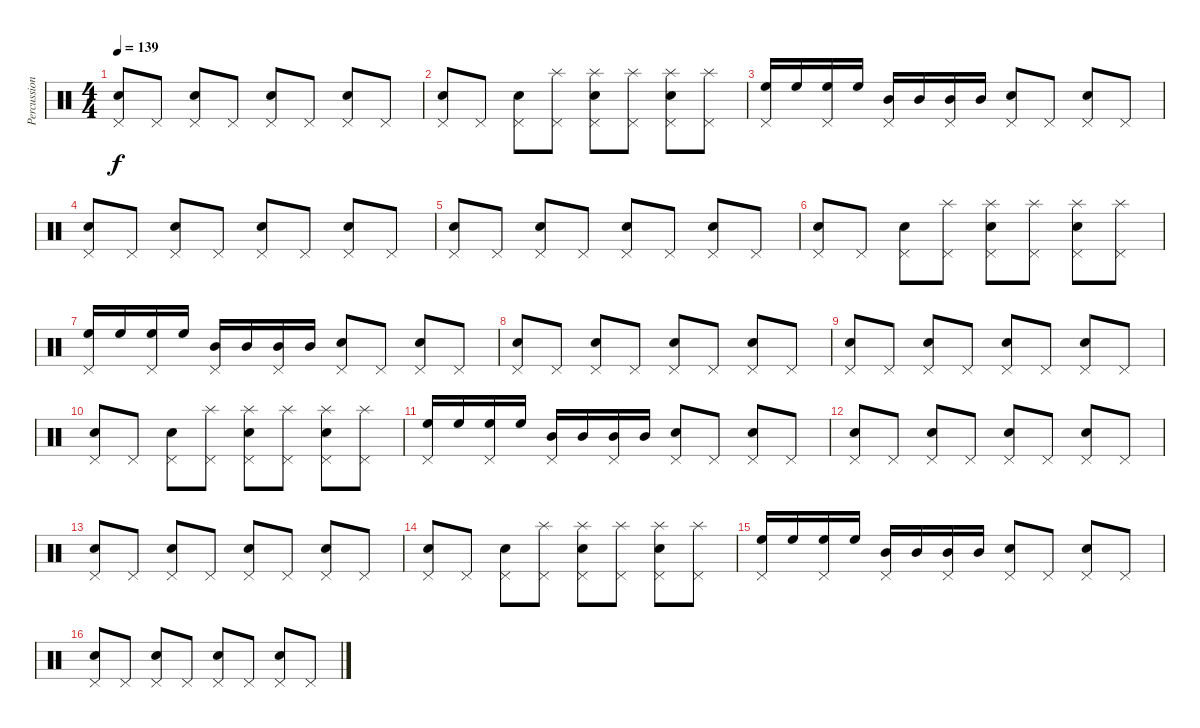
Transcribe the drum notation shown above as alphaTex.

\track ("Percussion" "Percussion") {instrument percussion}
\staff {score}
\articulation defaults
\ts (4 4)
\tempo 139
\clef neutral
\ks c
("Electric Snare (hit)" "Pedal Hi-Hat (hit)").8{dy f} "Pedal Hi-Hat (hit)".8 ("Electric Snare (hit)" "Pedal Hi-Hat (hit)").8 "Pedal Hi-Hat (hit)".8 ("Electric Snare (hit)" "Pedal Hi-Hat (hit)").8 "Pedal Hi-Hat (hit)".8 ("Electric Snare (hit)" "Pedal Hi-Hat (hit)").8 "Pedal Hi-Hat (hit)".8 |
("Electric Snare (hit)" "Pedal Hi-Hat (hit)").8 "Pedal Hi-Hat (hit)".8 ("Electric Snare (hit)" "Pedal Hi-Hat (hit)").8 ("Splash (hit)" "Pedal Hi-Hat (hit)").8 ("Splash (hit)" "Electric Snare (hit)" "Pedal Hi-Hat (hit)").8 ("Splash (hit)" "Pedal Hi-Hat (hit)").8 ("Splash (hit)" "Electric Snare (hit)" "Pedal Hi-Hat (hit)").8 ("Splash (hit)" "Pedal Hi-Hat (hit)").8 |
("High Floor Tom (hit)" "Pedal Hi-Hat (hit)").16 "High Floor Tom (hit)".16 ("High Floor Tom (hit)" "Pedal Hi-Hat (hit)").16 "High Floor Tom (hit)".16 ("Mid Tom (hit)" "Pedal Hi-Hat (hit)").16 "Mid Tom (hit)".16 ("Mid Tom (hit)" "Pedal Hi-Hat (hit)").16 "Mid Tom (hit)".16 ("Electric Snare (hit)" "Pedal Hi-Hat (hit)").8 "Pedal Hi-Hat (hit)".8 ("Electric Snare (hit)" "Pedal Hi-Hat (hit)").8 "Pedal Hi-Hat (hit)".8 |
("Electric Snare (hit)" "Pedal Hi-Hat (hit)").8 "Pedal Hi-Hat (hit)".8 ("Electric Snare (hit)" "Pedal Hi-Hat (hit)").8 "Pedal Hi-Hat (hit)".8 ("Electric Snare (hit)" "Pedal Hi-Hat (hit)").8 "Pedal Hi-Hat (hit)".8 ("Electric Snare (hit)" "Pedal Hi-Hat (hit)").8 "Pedal Hi-Hat (hit)".8 |
("Electric Snare (hit)" "Pedal Hi-Hat (hit)").8 "Pedal Hi-Hat (hit)".8 ("Electric Snare (hit)" "Pedal Hi-Hat (hit)").8 "Pedal Hi-Hat (hit)".8 ("Electric Snare (hit)" "Pedal Hi-Hat (hit)").8 "Pedal Hi-Hat (hit)".8 ("Electric Snare (hit)" "Pedal Hi-Hat (hit)").8 "Pedal Hi-Hat (hit)".8 |
("Electric Snare (hit)" "Pedal Hi-Hat (hit)").8 "Pedal Hi-Hat (hit)".8 ("Electric Snare (hit)" "Pedal Hi-Hat (hit)").8 ("Splash (hit)" "Pedal Hi-Hat (hit)").8 ("Splash (hit)" "Electric Snare (hit)" "Pedal Hi-Hat (hit)").8 ("Splash (hit)" "Pedal Hi-Hat (hit)").8 ("Splash (hit)" "Electric Snare (hit)" "Pedal Hi-Hat (hit)").8 ("Splash (hit)" "Pedal Hi-Hat (hit)").8 |
("High Floor Tom (hit)" "Pedal Hi-Hat (hit)").16 "High Floor Tom (hit)".16 ("High Floor Tom (hit)" "Pedal Hi-Hat (hit)").16 "High Floor Tom (hit)".16 ("Mid Tom (hit)" "Pedal Hi-Hat (hit)").16 "Mid Tom (hit)".16 ("Mid Tom (hit)" "Pedal Hi-Hat (hit)").16 "Mid Tom (hit)".16 ("Electric Snare (hit)" "Pedal Hi-Hat (hit)").8 "Pedal Hi-Hat (hit)".8 ("Electric Snare (hit)" "Pedal Hi-Hat (hit)").8 "Pedal Hi-Hat (hit)".8 |
("Electric Snare (hit)" "Pedal Hi-Hat (hit)").8 "Pedal Hi-Hat (hit)".8 ("Electric Snare (hit)" "Pedal Hi-Hat (hit)").8 "Pedal Hi-Hat (hit)".8 ("Electric Snare (hit)" "Pedal Hi-Hat (hit)").8 "Pedal Hi-Hat (hit)".8 ("Electric Snare (hit)" "Pedal Hi-Hat (hit)").8 "Pedal Hi-Hat (hit)".8 |
("Electric Snare (hit)" "Pedal Hi-Hat (hit)").8 "Pedal Hi-Hat (hit)".8 ("Electric Snare (hit)" "Pedal Hi-Hat (hit)").8 "Pedal Hi-Hat (hit)".8 ("Electric Snare (hit)" "Pedal Hi-Hat (hit)").8 "Pedal Hi-Hat (hit)".8 ("Electric Snare (hit)" "Pedal Hi-Hat (hit)").8 "Pedal Hi-Hat (hit)".8 |
("Electric Snare (hit)" "Pedal Hi-Hat (hit)").8 "Pedal Hi-Hat (hit)".8 ("Electric Snare (hit)" "Pedal Hi-Hat (hit)").8 ("Splash (hit)" "Pedal Hi-Hat (hit)").8 ("Splash (hit)" "Electric Snare (hit)" "Pedal Hi-Hat (hit)").8 ("Splash (hit)" "Pedal Hi-Hat (hit)").8 ("Splash (hit)" "Electric Snare (hit)" "Pedal Hi-Hat (hit)").8 ("Splash (hit)" "Pedal Hi-Hat (hit)").8 |
("High Floor Tom (hit)" "Pedal Hi-Hat (hit)").16 "High Floor Tom (hit)".16 ("High Floor Tom (hit)" "Pedal Hi-Hat (hit)").16 "High Floor Tom (hit)".16 ("Mid Tom (hit)" "Pedal Hi-Hat (hit)").16 "Mid Tom (hit)".16 ("Mid Tom (hit)" "Pedal Hi-Hat (hit)").16 "Mid Tom (hit)".16 ("Electric Snare (hit)" "Pedal Hi-Hat (hit)").8 "Pedal Hi-Hat (hit)".8 ("Electric Snare (hit)" "Pedal Hi-Hat (hit)").8 "Pedal Hi-Hat (hit)".8 |
("Electric Snare (hit)" "Pedal Hi-Hat (hit)").8 "Pedal Hi-Hat (hit)".8 ("Electric Snare (hit)" "Pedal Hi-Hat (hit)").8 "Pedal Hi-Hat (hit)".8 ("Electric Snare (hit)" "Pedal Hi-Hat (hit)").8 "Pedal Hi-Hat (hit)".8 ("Electric Snare (hit)" "Pedal Hi-Hat (hit)").8 "Pedal Hi-Hat (hit)".8 |
("Electric Snare (hit)" "Pedal Hi-Hat (hit)").8 "Pedal Hi-Hat (hit)".8 ("Electric Snare (hit)" "Pedal Hi-Hat (hit)").8 "Pedal Hi-Hat (hit)".8 ("Electric Snare (hit)" "Pedal Hi-Hat (hit)").8 "Pedal Hi-Hat (hit)".8 ("Electric Snare (hit)" "Pedal Hi-Hat (hit)").8 "Pedal Hi-Hat (hit)".8 |
("Electric Snare (hit)" "Pedal Hi-Hat (hit)").8 "Pedal Hi-Hat (hit)".8 ("Electric Snare (hit)" "Pedal Hi-Hat (hit)").8 ("Splash (hit)" "Pedal Hi-Hat (hit)").8 ("Splash (hit)" "Electric Snare (hit)" "Pedal Hi-Hat (hit)").8 ("Splash (hit)" "Pedal Hi-Hat (hit)").8 ("Splash (hit)" "Electric Snare (hit)" "Pedal Hi-Hat (hit)").8 ("Splash (hit)" "Pedal Hi-Hat (hit)").8 |
("High Floor Tom (hit)" "Pedal Hi-Hat (hit)").16 "High Floor Tom (hit)".16 ("High Floor Tom (hit)" "Pedal Hi-Hat (hit)").16 "High Floor Tom (hit)".16 ("Mid Tom (hit)" "Pedal Hi-Hat (hit)").16 "Mid Tom (hit)".16 ("Mid Tom (hit)" "Pedal Hi-Hat (hit)").16 "Mid Tom (hit)".16 ("Electric Snare (hit)" "Pedal Hi-Hat (hit)").8 "Pedal Hi-Hat (hit)".8 ("Electric Snare (hit)" "Pedal Hi-Hat (hit)").8 "Pedal Hi-Hat (hit)".8 |
("Electric Snare (hit)" "Pedal Hi-Hat (hit)").8 "Pedal Hi-Hat (hit)".8 ("Electric Snare (hit)" "Pedal Hi-Hat (hit)").8 "Pedal Hi-Hat (hit)".8 ("Electric Snare (hit)" "Pedal Hi-Hat (hit)").8 "Pedal Hi-Hat (hit)".8 ("Electric Snare (hit)" "Pedal Hi-Hat (hit)").8 "Pedal Hi-Hat (hit)".8
